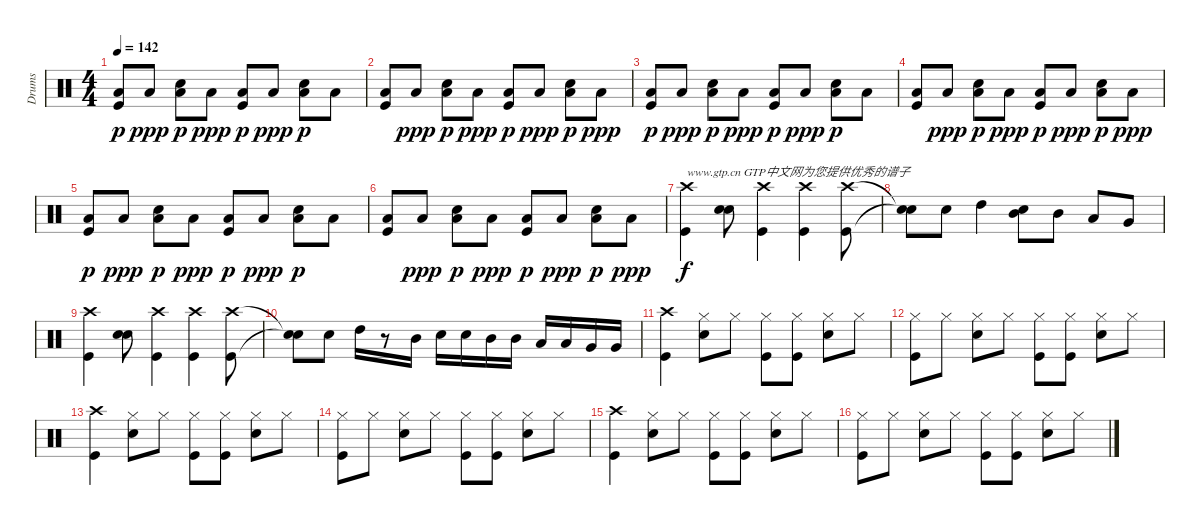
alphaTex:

\track ("Drums" "Drums") {instrument percussion}
\staff {score}
\articulation defaults
\ts (4 4)
\tempo 142
\clef neutral
\ks c
("Low Floor Tom (hit)" "Kick (hit)").8{dy p} "Low Floor Tom (hit)".8{dy ppp} ("Low Floor Tom (hit)" "Snare (hit) 2").8{dy p} "Low Floor Tom (hit)".8{dy ppp} ("Low Floor Tom (hit)" "Kick (hit)").8{dy p} "Low Floor Tom (hit)".8{dy ppp} ("Low Floor Tom (hit)" "Snare (hit) 2").8{dy p} "Low Floor Tom (hit)".8 |
("Low Floor Tom (hit)" "Kick (hit)").8 "Low Floor Tom (hit)".8{dy ppp} ("Low Floor Tom (hit)" "Snare (hit) 2").8{dy p} "Low Floor Tom (hit)".8{dy ppp} ("Low Floor Tom (hit)" "Kick (hit)").8{dy p} "Low Floor Tom (hit)".8{dy ppp} ("Low Floor Tom (hit)" "Snare (hit) 2").8{dy p} "Low Floor Tom (hit)".8{dy ppp} |
("Low Floor Tom (hit)" "Kick (hit)").8{dy p} "Low Floor Tom (hit)".8{dy ppp} ("Low Floor Tom (hit)" "Snare (hit) 2").8{dy p} "Low Floor Tom (hit)".8{dy ppp} ("Low Floor Tom (hit)" "Kick (hit)").8{dy p} "Low Floor Tom (hit)".8{dy ppp} ("Low Floor Tom (hit)" "Snare (hit) 2").8{dy p} "Low Floor Tom (hit)".8 |
("Low Floor Tom (hit)" "Kick (hit)").8 "Low Floor Tom (hit)".8{dy ppp} ("Low Floor Tom (hit)" "Snare (hit) 2").8{dy p} "Low Floor Tom (hit)".8{dy ppp} ("Low Floor Tom (hit)" "Kick (hit)").8{dy p} "Low Floor Tom (hit)".8{dy ppp} ("Low Floor Tom (hit)" "Snare (hit) 2").8{dy p} "Low Floor Tom (hit)".8{dy ppp} |
("Low Floor Tom (hit)" "Kick (hit)").8{dy p} "Low Floor Tom (hit)".8{dy ppp} ("Low Floor Tom (hit)" "Snare (hit) 2").8{dy p} "Low Floor Tom (hit)".8{dy ppp} ("Low Floor Tom (hit)" "Kick (hit)").8{dy p} "Low Floor Tom (hit)".8{dy ppp} ("Low Floor Tom (hit)" "Snare (hit) 2").8{dy p} "Low Floor Tom (hit)".8 |
("Low Floor Tom (hit)" "Kick (hit)").8 "Low Floor Tom (hit)".8{dy ppp} ("Low Floor Tom (hit)" "Snare (hit) 2").8{dy p} "Low Floor Tom (hit)".8{dy ppp} ("Low Floor Tom (hit)" "Kick (hit)").8{dy p} "Low Floor Tom (hit)".8{dy ppp} ("Low Floor Tom (hit)" "Snare (hit) 2").8{dy p} "Low Floor Tom (hit)".8{dy ppp} |
("Crash high (hit)" "Kick (hit)").4{txt "www.gtp.cn GTP中文网为您提供优秀的谱子" dy f} ("Snare (hit) 2" "Snare (hit) 2").8 ("Kick (hit)" "Crash high (hit)").4 ("Crash high (hit)" "Kick (hit)").4 ("Crash high (hit)" "Kick (hit)").8 |
("Snare (hit)"{t} "Snare (hit)"{t}).8 "Snare (hit) 2".8 "High Tom (hit)".4 ("Mid Tom (hit)" "Snare (hit) 2").8 "Mid Tom (hit)".8 "Low Tom (hit)".8 "Very Low Tom (hit)".8 |
("Crash high (hit)" "Kick (hit)").4 ("Snare (hit) 2" "Snare (hit) 2").8 ("Kick (hit)" "Crash high (hit)").4 ("Crash high (hit)" "Kick (hit)").4 ("Crash high (hit)" "Kick (hit)").8 |
("Snare (hit)"{t} "Snare (hit)"{t}).8 "Snare (hit) 2".8 "High Tom (hit)".16 r.8 "Mid Tom (hit)".16 "Snare (hit) 2".16 "Snare (hit) 2".16 "Mid Tom (hit)".16 "Mid Tom (hit)".16 "Low Tom (hit)".16 "Low Tom (hit)".16 "Very Low Tom (hit)".16 "Very Low Tom (hit)".16 |
("Kick (hit)" "Crash high (hit)").4 ("Hi-Hat (closed)" "Snare (hit) 2").8 "Hi-Hat (closed)".8 ("Kick (hit)" "Hi-Hat (closed)").8 ("Hi-Hat (closed)" "Kick (hit)").8 ("Hi-Hat (closed)" "Snare (hit) 2").8 "Hi-Hat (closed)".8 |
("Hi-Hat (closed)" "Kick (hit)").8 "Hi-Hat (closed)".8 ("Hi-Hat (closed)" "Snare (hit) 2").8 "Hi-Hat (closed)".8 ("Hi-Hat (closed)" "Kick (hit)").8 ("Hi-Hat (closed)" "Kick (hit)").8 ("Hi-Hat (closed)" "Snare (hit) 2").8 "Hi-Hat (closed)".8 |
("Kick (hit)" "Crash high (hit)").4 ("Hi-Hat (closed)" "Snare (hit) 2").8 "Hi-Hat (closed)".8 ("Kick (hit)" "Hi-Hat (closed)").8 ("Hi-Hat (closed)" "Kick (hit)").8 ("Hi-Hat (closed)" "Snare (hit) 2").8 "Hi-Hat (closed)".8 |
("Hi-Hat (closed)" "Kick (hit)").8 "Hi-Hat (closed)".8 ("Hi-Hat (closed)" "Snare (hit) 2").8 "Hi-Hat (closed)".8 ("Hi-Hat (closed)" "Kick (hit)").8 ("Hi-Hat (closed)" "Kick (hit)").8 ("Hi-Hat (closed)" "Snare (hit) 2").8 "Hi-Hat (closed)".8 |
("Kick (hit)" "Crash high (hit)").4 ("Hi-Hat (closed)" "Snare (hit) 2").8 "Hi-Hat (closed)".8 ("Kick (hit)" "Hi-Hat (closed)").8 ("Hi-Hat (closed)" "Kick (hit)").8 ("Hi-Hat (closed)" "Snare (hit) 2").8 "Hi-Hat (closed)".8 |
("Hi-Hat (closed)" "Kick (hit)").8 "Hi-Hat (closed)".8 ("Hi-Hat (closed)" "Snare (hit) 2").8 "Hi-Hat (closed)".8 ("Hi-Hat (closed)" "Kick (hit)").8 ("Hi-Hat (closed)" "Kick (hit)").8 ("Hi-Hat (closed)" "Snare (hit) 2").8 "Hi-Hat (closed)".8
